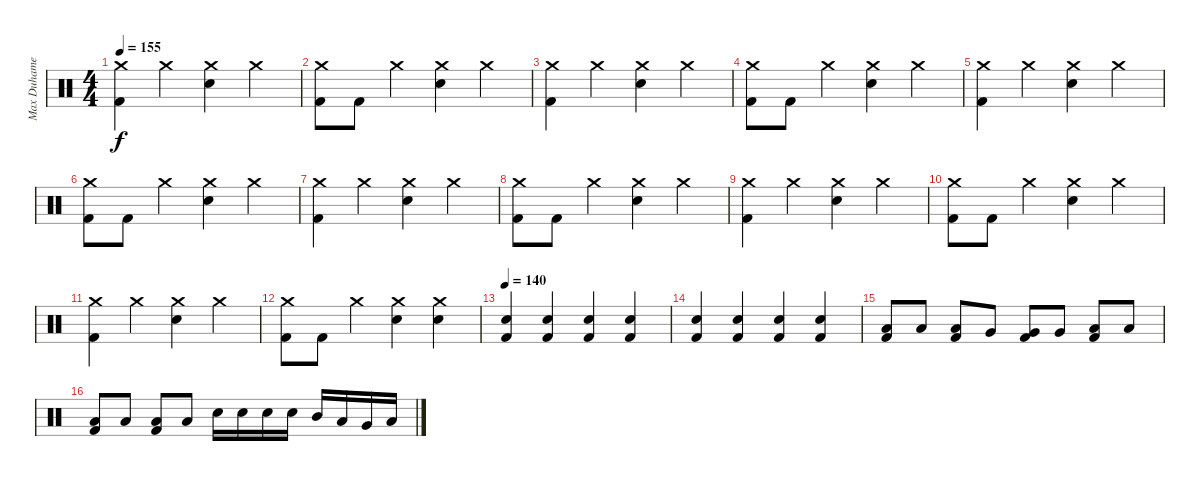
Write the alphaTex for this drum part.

\track ("Max Duhamel (Drums)" "Max Duhame") {instrument percussion}
\staff {score}
\articulation defaults
\ts (4 4)
\tempo 155
\clef neutral
\ks c
("Crash medium (hit)" "Kick (hit) 2").4{dy f} "Crash medium (hit)".4 ("Crash medium (hit)" "Electric Snare (hit)").4 "Crash medium (hit)".4 |
("Crash medium (hit)" "Kick (hit) 2").8 "Kick (hit) 2".8 "Crash medium (hit)".4 ("Crash medium (hit)" "Electric Snare (hit)").4 "Crash medium (hit)".4 |
("Crash medium (hit)" "Kick (hit) 2").4 "Crash medium (hit)".4 ("Crash medium (hit)" "Electric Snare (hit)").4 "Crash medium (hit)".4 |
("Crash medium (hit)" "Kick (hit) 2").8 "Kick (hit) 2".8 "Crash medium (hit)".4 ("Crash medium (hit)" "Electric Snare (hit)").4 "Crash medium (hit)".4 |
("Crash medium (hit)" "Kick (hit) 2").4 "Crash medium (hit)".4 ("Crash medium (hit)" "Electric Snare (hit)").4 "Crash medium (hit)".4 |
("Crash medium (hit)" "Kick (hit) 2").8 "Kick (hit) 2".8 "Crash medium (hit)".4 ("Crash medium (hit)" "Electric Snare (hit)").4 "Crash medium (hit)".4 |
("Crash medium (hit)" "Kick (hit) 2").4 "Crash medium (hit)".4 ("Crash medium (hit)" "Electric Snare (hit)").4 "Crash medium (hit)".4 |
("Crash medium (hit)" "Kick (hit) 2").8 "Kick (hit) 2".8 "Crash medium (hit)".4 ("Crash medium (hit)" "Electric Snare (hit)").4 "Crash medium (hit)".4 |
("Crash medium (hit)" "Kick (hit) 2").4 "Crash medium (hit)".4 ("Crash medium (hit)" "Electric Snare (hit)").4 "Crash medium (hit)".4 |
("Crash medium (hit)" "Kick (hit) 2").8 "Kick (hit) 2".8 "Crash medium (hit)".4 ("Crash medium (hit)" "Electric Snare (hit)").4 "Crash medium (hit)".4 |
("Crash medium (hit)" "Kick (hit) 2").4 "Crash medium (hit)".4 ("Crash medium (hit)" "Electric Snare (hit)").4 "Crash medium (hit)".4 |
("Crash medium (hit)" "Kick (hit) 2").8 "Kick (hit) 2".8 "Crash medium (hit)".4 ("Crash medium (hit)" "Electric Snare (hit)").4 ("Crash medium (hit)" "Electric Snare (hit)").4 |
\tempo 140
("Electric Snare (hit)" "Kick (hit) 2").4 ("Electric Snare (hit)" "Kick (hit) 2").4 ("Electric Snare (hit)" "Kick (hit) 2").4 ("Electric Snare (hit)" "Kick (hit) 2").4 |
("Electric Snare (hit)" "Kick (hit) 2").4 ("Electric Snare (hit)" "Kick (hit) 2").4 ("Electric Snare (hit)" "Kick (hit) 2").4 ("Electric Snare (hit)" "Kick (hit) 2").4 |
("Low Tom (hit)" "Kick (hit) 2").8 "Low Tom (hit)".8 ("Low Tom (hit)" "Kick (hit) 2").8 "Very Low Tom (hit)".8 ("Very Low Tom (hit)" "Kick (hit) 2").8 "Very Low Tom (hit)".8 ("Low Floor Tom (hit)" "Kick (hit) 2").8 "Low Floor Tom (hit)".8 |
("Low Floor Tom (hit)" "Kick (hit) 2").8 "Low Floor Tom (hit)".8 ("Low Floor Tom (hit)" "Kick (hit) 2").8 "Low Floor Tom (hit)".8 "Electric Snare (hit)".16 "Electric Snare (hit)".16 "Electric Snare (hit)".16 "Electric Snare (hit)".16 "Mid Tom (hit)".16 "Low Tom (hit)".16 "Very Low Tom (hit)".16 "Low Floor Tom (hit)".16
